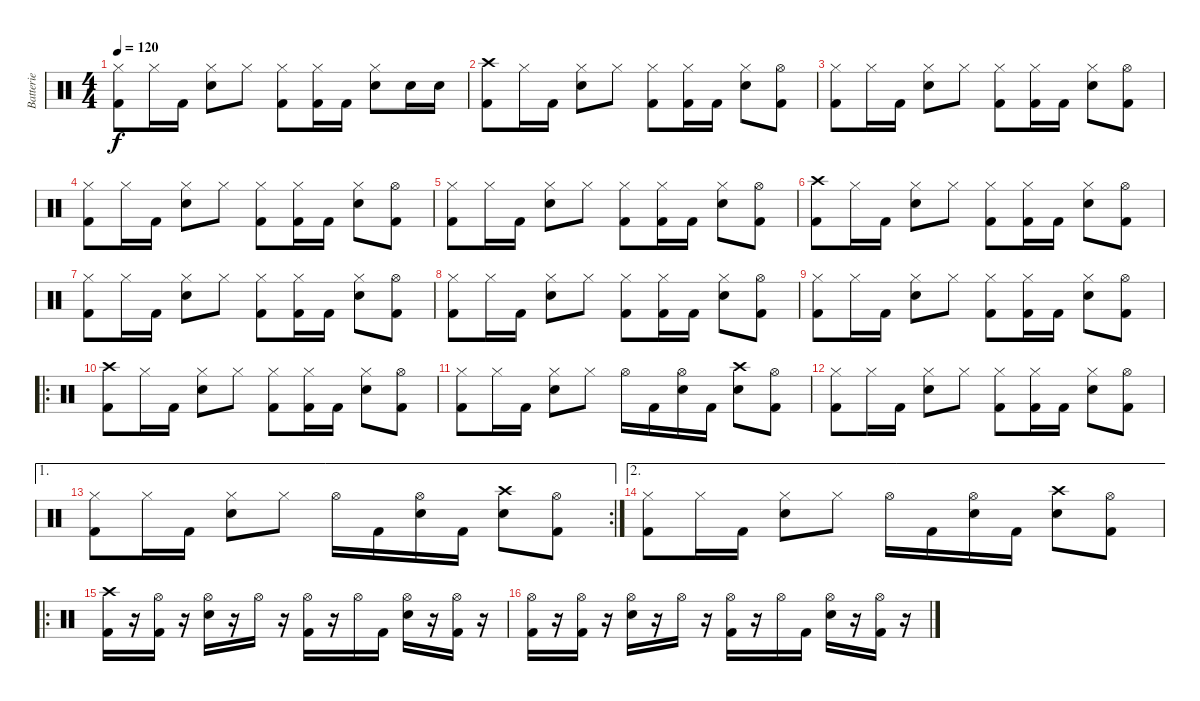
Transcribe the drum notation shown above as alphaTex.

\track ("Batterie" "Batterie") {instrument percussion}
\staff {score}
\articulation defaults
\ts (4 4)
\tempo 120
\clef neutral
\ks c
("Hi-Hat (closed)" "Kick (hit) 2").8{dy f} "Hi-Hat (closed)".16 "Kick (hit) 2".16 ("Hi-Hat (closed)" "Snare (hit) 2").8 "Hi-Hat (closed)".8 ("Hi-Hat (closed)" "Kick (hit) 2").8 ("Hi-Hat (closed)" "Kick (hit) 2").16 "Kick (hit) 2".16 ("Hi-Hat (closed)" "Snare (hit) 2").8 "Snare (hit) 2".16 "Snare (hit) 2".16 |
("Crash high (hit)" "Kick (hit) 2").8{volume 14} "Hi-Hat (closed)".16 "Kick (hit) 2".16 ("Hi-Hat (closed)" "Snare (hit) 2").8 "Hi-Hat (closed)".8 ("Hi-Hat (closed)" "Kick (hit) 2").8 ("Hi-Hat (closed)" "Kick (hit) 2").16 "Kick (hit) 2".16 ("Hi-Hat (closed)" "Snare (hit) 2").8 ("Hi-Hat (open)" "Kick (hit) 2").8 |
("Hi-Hat (closed)" "Kick (hit) 2").8 "Hi-Hat (closed)".16 "Kick (hit) 2".16 ("Hi-Hat (closed)" "Snare (hit) 2").8 "Hi-Hat (closed)".8 ("Hi-Hat (closed)" "Kick (hit) 2").8 ("Hi-Hat (closed)" "Kick (hit) 2").16 "Kick (hit) 2".16 ("Hi-Hat (closed)" "Snare (hit) 2").8 ("Hi-Hat (open)" "Kick (hit) 2").8 |
("Hi-Hat (closed)" "Kick (hit) 2").8 "Hi-Hat (closed)".16 "Kick (hit) 2".16 ("Hi-Hat (closed)" "Snare (hit) 2").8 "Hi-Hat (closed)".8 ("Hi-Hat (closed)" "Kick (hit) 2").8 ("Hi-Hat (closed)" "Kick (hit) 2").16 "Kick (hit) 2".16 ("Hi-Hat (closed)" "Snare (hit) 2").8 ("Hi-Hat (open)" "Kick (hit) 2").8 |
("Hi-Hat (closed)" "Kick (hit) 2").8 "Hi-Hat (closed)".16 "Kick (hit) 2".16 ("Hi-Hat (closed)" "Snare (hit) 2").8 "Hi-Hat (closed)".8 ("Hi-Hat (closed)" "Kick (hit) 2").8 ("Hi-Hat (closed)" "Kick (hit) 2").16 "Kick (hit) 2".16 ("Hi-Hat (closed)" "Snare (hit) 2").8 ("Hi-Hat (open)" "Kick (hit) 2").8 |
("Crash high (hit)" "Kick (hit) 2").8 "Hi-Hat (closed)".16 "Kick (hit) 2".16 ("Hi-Hat (closed)" "Snare (hit) 2").8 "Hi-Hat (closed)".8 ("Hi-Hat (closed)" "Kick (hit) 2").8 ("Hi-Hat (closed)" "Kick (hit) 2").16 "Kick (hit) 2".16 ("Hi-Hat (closed)" "Snare (hit) 2").8 ("Hi-Hat (open)" "Kick (hit) 2").8 |
("Hi-Hat (closed)" "Kick (hit) 2").8 "Hi-Hat (closed)".16 "Kick (hit) 2".16 ("Hi-Hat (closed)" "Snare (hit) 2").8 "Hi-Hat (closed)".8 ("Hi-Hat (closed)" "Kick (hit) 2").8 ("Hi-Hat (closed)" "Kick (hit) 2").16 "Kick (hit) 2".16 ("Hi-Hat (closed)" "Snare (hit) 2").8 ("Hi-Hat (open)" "Kick (hit) 2").8 |
("Hi-Hat (closed)" "Kick (hit) 2").8 "Hi-Hat (closed)".16 "Kick (hit) 2".16 ("Hi-Hat (closed)" "Snare (hit) 2").8 "Hi-Hat (closed)".8 ("Hi-Hat (closed)" "Kick (hit) 2").8 ("Hi-Hat (closed)" "Kick (hit) 2").16 "Kick (hit) 2".16 ("Hi-Hat (closed)" "Snare (hit) 2").8 ("Hi-Hat (open)" "Kick (hit) 2").8 |
("Hi-Hat (closed)" "Kick (hit) 2").8 "Hi-Hat (closed)".16 "Kick (hit) 2".16 ("Hi-Hat (closed)" "Snare (hit) 2").8 "Hi-Hat (closed)".8 ("Hi-Hat (closed)" "Kick (hit) 2").8 ("Hi-Hat (closed)" "Kick (hit) 2").16 "Kick (hit) 2".16 ("Hi-Hat (closed)" "Snare (hit) 2").8 ("Hi-Hat (open)" "Kick (hit) 2").8 |
\ro
("Crash high (hit)" "Kick (hit) 2").8 "Hi-Hat (closed)".16 "Kick (hit) 2".16 ("Hi-Hat (closed)" "Snare (hit) 2").8 "Hi-Hat (closed)".8 ("Hi-Hat (closed)" "Kick (hit) 2").8 ("Hi-Hat (closed)" "Kick (hit) 2").16 "Kick (hit) 2".16 ("Hi-Hat (closed)" "Snare (hit) 2").8 ("Hi-Hat (open)" "Kick (hit) 2").8 |
("Hi-Hat (closed)" "Kick (hit) 2").8 "Hi-Hat (closed)".16 "Kick (hit) 2".16 ("Hi-Hat (closed)" "Snare (hit) 2").8 "Hi-Hat (closed)".8 "Hi-Hat (open)".16 "Kick (hit) 2".16 ("Hi-Hat (open)" "Snare (hit) 2").16 "Kick (hit) 2".16 ("Crash high (hit)" "Snare (hit) 2").8 ("Hi-Hat (open)" "Kick (hit) 2").8 |
("Hi-Hat (closed)" "Kick (hit) 2").8 "Hi-Hat (closed)".16 "Kick (hit) 2".16 ("Hi-Hat (closed)" "Snare (hit) 2").8 "Hi-Hat (closed)".8 ("Hi-Hat (closed)" "Kick (hit) 2").8 ("Hi-Hat (closed)" "Kick (hit) 2").16 "Kick (hit) 2".16 ("Hi-Hat (closed)" "Snare (hit) 2").8 ("Hi-Hat (open)" "Kick (hit) 2").8 |
\ae 1
\rc 2
("Hi-Hat (closed)" "Kick (hit) 2").8 "Hi-Hat (closed)".16 "Kick (hit) 2".16 ("Hi-Hat (closed)" "Snare (hit) 2").8 "Hi-Hat (closed)".8 "Hi-Hat (open)".16 "Kick (hit) 2".16 ("Hi-Hat (open)" "Snare (hit) 2").16 "Kick (hit) 2".16 ("Crash high (hit)" "Snare (hit) 2").8 ("Hi-Hat (open)" "Kick (hit) 2").8 |
\ae 2
("Hi-Hat (closed)" "Kick (hit) 2").8 "Hi-Hat (closed)".16 "Kick (hit) 2".16 ("Hi-Hat (closed)" "Snare (hit) 2").8 "Hi-Hat (closed)".8 "Hi-Hat (open)".16 "Kick (hit) 2".16 ("Hi-Hat (open)" "Snare (hit) 2").16 "Kick (hit) 2".16 ("Crash high (hit)" "Snare (hit) 2").8 ("Hi-Hat (open)" "Kick (hit) 2").8 |
\ro
("Crash high (hit)" "Kick (hit) 2").16 r.16 ("Hi-Hat (open)" "Kick (hit) 2").16 r.16 ("Hi-Hat (open)" "Snare (hit) 2").16 r.16 "Hi-Hat (open)".16 r.16 ("Hi-Hat (open)" "Kick (hit) 2").16 r.16 "Hi-Hat (open)".16 "Kick (hit) 2".16 ("Hi-Hat (open)" "Snare (hit) 2").16 r.16 ("Hi-Hat (open)" "Kick (hit) 2").16 r.16 |
("Hi-Hat (open)" "Kick (hit) 2").16 r.16 ("Hi-Hat (open)" "Kick (hit) 2").16 r.16 ("Hi-Hat (open)" "Snare (hit) 2").16 r.16 "Hi-Hat (open)".16 r.16 ("Hi-Hat (open)" "Kick (hit) 2").16 r.16 "Hi-Hat (open)".16 "Kick (hit) 2".16 ("Hi-Hat (open)" "Snare (hit) 2").16 r.16 ("Hi-Hat (open)" "Kick (hit) 2").16 r.16
